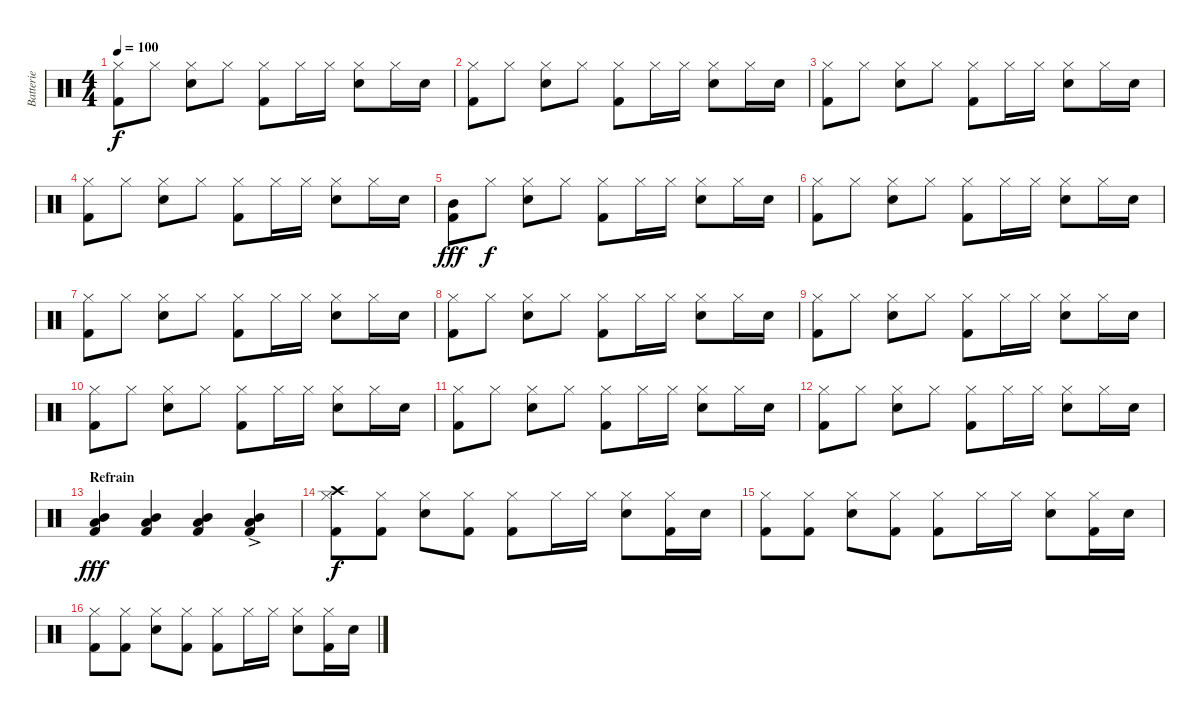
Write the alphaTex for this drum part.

\track ("Batterie" "Batterie") {instrument percussion}
\staff {score}
\articulation defaults
\ts (4 4)
\tempo 100
\clef neutral
\ks c
("Kick (hit) 2" "Hi-Hat (closed)").8{dy f} "Hi-Hat (closed)".8 ("Electric Snare (hit)" "Hi-Hat (closed)").8 "Hi-Hat (closed)".8 ("Kick (hit) 2" "Hi-Hat (closed)").8 "Hi-Hat (closed)".16 "Hi-Hat (closed)".16 ("Electric Snare (hit)" "Hi-Hat (closed)").8 "Hi-Hat (closed)".16 "Electric Snare (hit)".16 |
("Kick (hit) 2" "Hi-Hat (closed)").8 "Hi-Hat (closed)".8 ("Electric Snare (hit)" "Hi-Hat (closed)").8 "Hi-Hat (closed)".8 ("Kick (hit) 2" "Hi-Hat (closed)").8 "Hi-Hat (closed)".16 "Hi-Hat (closed)".16 ("Electric Snare (hit)" "Hi-Hat (closed)").8 "Hi-Hat (closed)".16 "Electric Snare (hit)".16 |
("Kick (hit) 2" "Hi-Hat (closed)").8 "Hi-Hat (closed)".8 ("Electric Snare (hit)" "Hi-Hat (closed)").8 "Hi-Hat (closed)".8 ("Kick (hit) 2" "Hi-Hat (closed)").8 "Hi-Hat (closed)".16 "Hi-Hat (closed)".16 ("Electric Snare (hit)" "Hi-Hat (closed)").8 "Hi-Hat (closed)".16 "Electric Snare (hit)".16 |
("Kick (hit) 2" "Hi-Hat (closed)").8 "Hi-Hat (closed)".8 ("Electric Snare (hit)" "Hi-Hat (closed)").8 "Hi-Hat (closed)".8 ("Kick (hit) 2" "Hi-Hat (closed)").8 "Hi-Hat (closed)".16 "Hi-Hat (closed)".16 ("Electric Snare (hit)" "Hi-Hat (closed)").8 "Hi-Hat (closed)".16 "Electric Snare (hit)".16 |
("Kick (hit) 2" "Mid Tom (hit)").8{dy fff} "Hi-Hat (closed)".8{dy f} ("Electric Snare (hit)" "Hi-Hat (closed)").8 "Hi-Hat (closed)".8 ("Kick (hit) 2" "Hi-Hat (closed)").8 "Hi-Hat (closed)".16 "Hi-Hat (closed)".16 ("Electric Snare (hit)" "Hi-Hat (closed)").8 "Hi-Hat (closed)".16 "Electric Snare (hit)".16 |
("Kick (hit) 2" "Hi-Hat (closed)").8 "Hi-Hat (closed)".8 ("Electric Snare (hit)" "Hi-Hat (closed)").8 "Hi-Hat (closed)".8 ("Kick (hit) 2" "Hi-Hat (closed)").8 "Hi-Hat (closed)".16 "Hi-Hat (closed)".16 ("Electric Snare (hit)" "Hi-Hat (closed)").8 "Hi-Hat (closed)".16 "Electric Snare (hit)".16 |
("Kick (hit) 2" "Hi-Hat (closed)").8 "Hi-Hat (closed)".8 ("Electric Snare (hit)" "Hi-Hat (closed)").8 "Hi-Hat (closed)".8 ("Kick (hit) 2" "Hi-Hat (closed)").8 "Hi-Hat (closed)".16 "Hi-Hat (closed)".16 ("Electric Snare (hit)" "Hi-Hat (closed)").8 "Hi-Hat (closed)".16 "Electric Snare (hit)".16 |
("Kick (hit) 2" "Hi-Hat (closed)").8 "Hi-Hat (closed)".8 ("Electric Snare (hit)" "Hi-Hat (closed)").8 "Hi-Hat (closed)".8 ("Kick (hit) 2" "Hi-Hat (closed)").8 "Hi-Hat (closed)".16 "Hi-Hat (closed)".16 ("Electric Snare (hit)" "Hi-Hat (closed)").8 "Hi-Hat (closed)".16 "Electric Snare (hit)".16 |
("Kick (hit) 2" "Hi-Hat (closed)").8 "Hi-Hat (closed)".8 ("Electric Snare (hit)" "Hi-Hat (closed)").8 "Hi-Hat (closed)".8 ("Kick (hit) 2" "Hi-Hat (closed)").8 "Hi-Hat (closed)".16 "Hi-Hat (closed)".16 ("Electric Snare (hit)" "Hi-Hat (closed)").8 "Hi-Hat (closed)".16 "Electric Snare (hit)".16 |
("Kick (hit) 2" "Hi-Hat (closed)").8 "Hi-Hat (closed)".8 ("Electric Snare (hit)" "Hi-Hat (closed)").8 "Hi-Hat (closed)".8 ("Kick (hit) 2" "Hi-Hat (closed)").8 "Hi-Hat (closed)".16 "Hi-Hat (closed)".16 ("Electric Snare (hit)" "Hi-Hat (closed)").8 "Hi-Hat (closed)".16 "Electric Snare (hit)".16 |
("Kick (hit) 2" "Hi-Hat (closed)").8 "Hi-Hat (closed)".8 ("Electric Snare (hit)" "Hi-Hat (closed)").8 "Hi-Hat (closed)".8 ("Kick (hit) 2" "Hi-Hat (closed)").8 "Hi-Hat (closed)".16 "Hi-Hat (closed)".16 ("Electric Snare (hit)" "Hi-Hat (closed)").8 "Hi-Hat (closed)".16 "Electric Snare (hit)".16 |
("Kick (hit) 2" "Hi-Hat (closed)").8 "Hi-Hat (closed)".8 ("Electric Snare (hit)" "Hi-Hat (closed)").8 "Hi-Hat (closed)".8 ("Kick (hit) 2" "Hi-Hat (closed)").8 "Hi-Hat (closed)".16 "Hi-Hat (closed)".16 ("Electric Snare (hit)" "Hi-Hat (closed)").8 "Hi-Hat (closed)".16 "Electric Snare (hit)".16 |
\section ("" "Refrain")
("Kick (hit) 2" "Mid Tom (hit)" "Low Floor Tom (hit)").4{dy fff} ("Kick (hit) 2" "Mid Tom (hit)" "Low Floor Tom (hit)").4 ("Kick (hit) 2" "Mid Tom (hit)" "Low Floor Tom (hit)").4 ("Kick (hit) 2"{ac} "Mid Tom (hit)" "Low Floor Tom (hit)").4 |
("Kick (hit) 2" "Crash high (hit)" "Hi-Hat (closed)").8{dy f} ("Kick (hit) 2" "Hi-Hat (closed)").8 ("Snare (hit) 2" "Hi-Hat (closed)").8 ("Kick (hit) 2" "Hi-Hat (closed)").8 ("Kick (hit) 2" "Hi-Hat (closed)").8 "Hi-Hat (closed)".16 "Hi-Hat (closed)".16 ("Snare (hit) 2" "Hi-Hat (closed)").8 ("Kick (hit) 2" "Hi-Hat (closed)").16 "Snare (hit) 2".16 |
("Kick (hit) 2" "Hi-Hat (closed)").8 ("Kick (hit) 2" "Hi-Hat (closed)").8 ("Snare (hit) 2" "Hi-Hat (closed)").8 ("Kick (hit) 2" "Hi-Hat (closed)").8 ("Kick (hit) 2" "Hi-Hat (closed)").8 "Hi-Hat (closed)".16 "Hi-Hat (closed)".16 ("Snare (hit) 2" "Hi-Hat (closed)").8 ("Kick (hit) 2" "Hi-Hat (closed)").16 "Snare (hit) 2".16 |
("Kick (hit) 2" "Hi-Hat (closed)").8 ("Kick (hit) 2" "Hi-Hat (closed)").8 ("Snare (hit) 2" "Hi-Hat (closed)").8 ("Kick (hit) 2" "Hi-Hat (closed)").8 ("Kick (hit) 2" "Hi-Hat (closed)").8 "Hi-Hat (closed)".16 "Hi-Hat (closed)".16 ("Snare (hit) 2" "Hi-Hat (closed)").8 ("Kick (hit) 2" "Hi-Hat (closed)").16 "Snare (hit) 2".16
